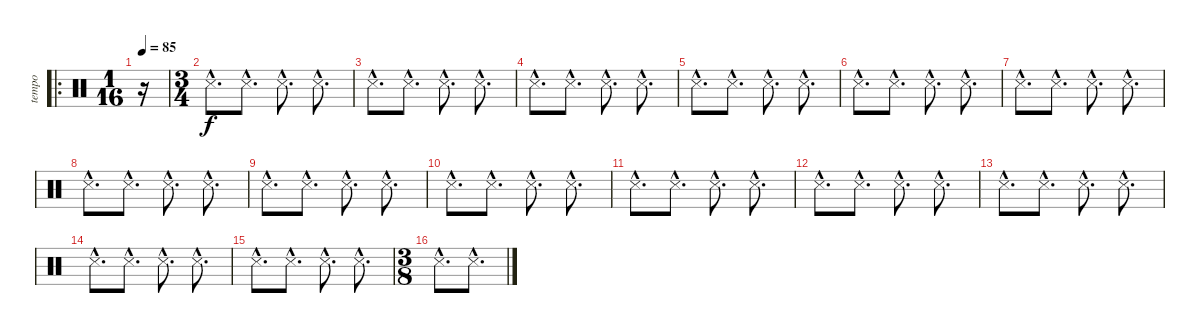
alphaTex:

\track ("tempo" "tempo") {instrument percussion}
\staff {score}
\articulation defaults
\ro
\ts (1 16)
\tempo 85
\clef neutral
\ks c
r.16{dy f} |
\ts (3 4)
"Metronome (hit)"{hac}.8{d} "Metronome (hit)"{hac}.8{d} "Metronome (hit)"{hac}.8{d} "Metronome (hit)"{hac}.8{d} |
"Metronome (hit)"{hac}.8{d} "Metronome (hit)"{hac}.8{d} "Metronome (hit)"{hac}.8{d} "Metronome (hit)"{hac}.8{d} |
"Metronome (hit)"{hac}.8{d} "Metronome (hit)"{hac}.8{d} "Metronome (hit)"{hac}.8{d} "Metronome (hit)"{hac}.8{d} |
"Metronome (hit)"{hac}.8{d} "Metronome (hit)"{hac}.8{d} "Metronome (hit)"{hac}.8{d} "Metronome (hit)"{hac}.8{d} |
"Metronome (hit)"{hac}.8{d} "Metronome (hit)"{hac}.8{d} "Metronome (hit)"{hac}.8{d} "Metronome (hit)"{hac}.8{d} |
"Metronome (hit)"{hac}.8{d} "Metronome (hit)"{hac}.8{d} "Metronome (hit)"{hac}.8{d} "Metronome (hit)"{hac}.8{d} |
"Metronome (hit)"{hac}.8{d} "Metronome (hit)"{hac}.8{d} "Metronome (hit)"{hac}.8{d} "Metronome (hit)"{hac}.8{d} |
"Metronome (hit)"{hac}.8{d} "Metronome (hit)"{hac}.8{d} "Metronome (hit)"{hac}.8{d} "Metronome (hit)"{hac}.8{d} |
"Metronome (hit)"{hac}.8{d} "Metronome (hit)"{hac}.8{d} "Metronome (hit)"{hac}.8{d} "Metronome (hit)"{hac}.8{d} |
"Metronome (hit)"{hac}.8{d} "Metronome (hit)"{hac}.8{d} "Metronome (hit)"{hac}.8{d} "Metronome (hit)"{hac}.8{d} |
"Metronome (hit)"{hac}.8{d} "Metronome (hit)"{hac}.8{d} "Metronome (hit)"{hac}.8{d} "Metronome (hit)"{hac}.8{d} |
"Metronome (hit)"{hac}.8{d} "Metronome (hit)"{hac}.8{d} "Metronome (hit)"{hac}.8{d} "Metronome (hit)"{hac}.8{d} |
"Metronome (hit)"{hac}.8{d} "Metronome (hit)"{hac}.8{d} "Metronome (hit)"{hac}.8{d} "Metronome (hit)"{hac}.8{d} |
"Metronome (hit)"{hac}.8{d} "Metronome (hit)"{hac}.8{d} "Metronome (hit)"{hac}.8{d} "Metronome (hit)"{hac}.8{d} |
\ts (3 8)
"Metronome (hit)"{hac}.8{d} "Metronome (hit)"{hac}.8{d}
